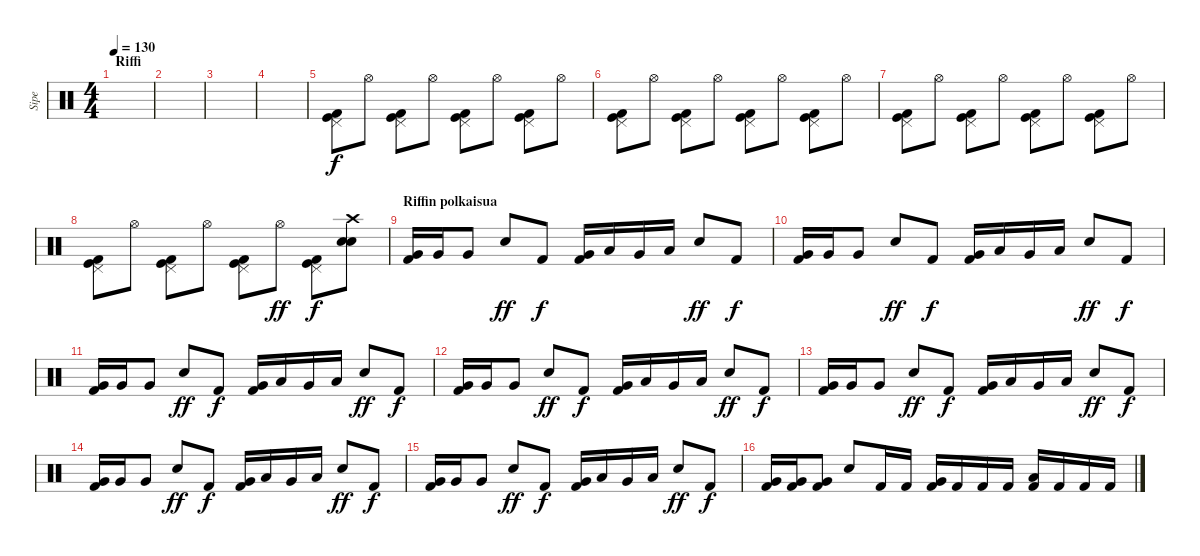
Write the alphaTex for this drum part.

\track ("Sipe" "Sipe") {instrument percussion}
\staff {score}
\articulation defaults
\ts (4 4)
\section ("" "Riffi")
\tempo 130
\clef neutral
\ks c
|
|
|
|
("Pedal Hi-Hat (hit)" "Kick (hit)" "Kick (hit) 2").8 "Hi-Hat (open)".8 ("Pedal Hi-Hat (hit)" "Kick (hit)" "Kick (hit) 2").8 "Hi-Hat (open)".8 ("Pedal Hi-Hat (hit)" "Kick (hit)" "Kick (hit) 2").8 "Hi-Hat (open)".8 ("Pedal Hi-Hat (hit)" "Kick (hit)" "Kick (hit) 2").8 "Hi-Hat (open)".8 |
("Pedal Hi-Hat (hit)" "Kick (hit)" "Kick (hit) 2").8 "Hi-Hat (open)".8 ("Pedal Hi-Hat (hit)" "Kick (hit)" "Kick (hit) 2").8 "Hi-Hat (open)".8 ("Pedal Hi-Hat (hit)" "Kick (hit)" "Kick (hit) 2").8 "Hi-Hat (open)".8 ("Pedal Hi-Hat (hit)" "Kick (hit)" "Kick (hit) 2").8 "Hi-Hat (open)".8 |
("Pedal Hi-Hat (hit)" "Kick (hit)" "Kick (hit) 2").8 "Hi-Hat (open)".8 ("Pedal Hi-Hat (hit)" "Kick (hit)" "Kick (hit) 2").8 "Hi-Hat (open)".8 ("Pedal Hi-Hat (hit)" "Kick (hit)" "Kick (hit) 2").8 "Hi-Hat (open)".8 ("Pedal Hi-Hat (hit)" "Kick (hit)" "Kick (hit) 2").8 "Hi-Hat (open)".8 |
("Pedal Hi-Hat (hit)" "Kick (hit)" "Kick (hit) 2").8 "Hi-Hat (open)".8 ("Pedal Hi-Hat (hit)" "Kick (hit)" "Kick (hit) 2").8 "Hi-Hat (open)".8 ("Pedal Hi-Hat (hit)" "Kick (hit)" "Kick (hit) 2").8 "Hi-Hat (open)".8{dy ff} ("Pedal Hi-Hat (hit)" "Kick (hit)" "Kick (hit) 2").8{dy f} ("Crash high (hit)" "Snare (hit) 2" "Snare (hit) 2").8 |
\section ("" "Riffin polkaisua")
("Very Low Tom (hit)" "Kick (hit) 2").16 "Very Low Tom (hit)".16 "Very Low Tom (hit)".8 "Electric Snare (hit)".8{dy ff} "Kick (hit) 2".8{dy f} ("Very Low Tom (hit)" "Kick (hit) 2").16 "Low Floor Tom (hit)".16 "Very Low Tom (hit)".16 "Low Floor Tom (hit)".16 "Electric Snare (hit)".8{dy ff} "Kick (hit) 2".8{dy f} |
("Very Low Tom (hit)" "Kick (hit) 2").16 "Very Low Tom (hit)".16 "Very Low Tom (hit)".8 "Electric Snare (hit)".8{dy ff} "Kick (hit) 2".8{dy f} ("Very Low Tom (hit)" "Kick (hit) 2").16 "Low Floor Tom (hit)".16 "Very Low Tom (hit)".16 "Low Floor Tom (hit)".16 "Electric Snare (hit)".8{dy ff} "Kick (hit) 2".8{dy f} |
("Very Low Tom (hit)" "Kick (hit) 2").16 "Very Low Tom (hit)".16 "Very Low Tom (hit)".8 "Electric Snare (hit)".8{dy ff} "Kick (hit) 2".8{dy f} ("Very Low Tom (hit)" "Kick (hit) 2").16 "Low Floor Tom (hit)".16 "Very Low Tom (hit)".16 "Low Floor Tom (hit)".16 "Electric Snare (hit)".8{dy ff} "Kick (hit) 2".8{dy f} |
("Very Low Tom (hit)" "Kick (hit) 2").16 "Very Low Tom (hit)".16 "Very Low Tom (hit)".8 "Electric Snare (hit)".8{dy ff} "Kick (hit) 2".8{dy f} ("Very Low Tom (hit)" "Kick (hit) 2").16 "Low Floor Tom (hit)".16 "Very Low Tom (hit)".16 "Low Floor Tom (hit)".16 "Electric Snare (hit)".8{dy ff} "Kick (hit) 2".8{dy f} |
("Very Low Tom (hit)" "Kick (hit) 2").16 "Very Low Tom (hit)".16 "Very Low Tom (hit)".8 "Electric Snare (hit)".8{dy ff} "Kick (hit) 2".8{dy f} ("Very Low Tom (hit)" "Kick (hit) 2").16 "Low Floor Tom (hit)".16 "Very Low Tom (hit)".16 "Low Floor Tom (hit)".16 "Electric Snare (hit)".8{dy ff} "Kick (hit) 2".8{dy f} |
("Very Low Tom (hit)" "Kick (hit) 2").16 "Very Low Tom (hit)".16 "Very Low Tom (hit)".8 "Electric Snare (hit)".8{dy ff} "Kick (hit) 2".8{dy f} ("Very Low Tom (hit)" "Kick (hit) 2").16 "Low Floor Tom (hit)".16 "Very Low Tom (hit)".16 "Low Floor Tom (hit)".16 "Electric Snare (hit)".8{dy ff} "Kick (hit) 2".8{dy f} |
("Very Low Tom (hit)" "Kick (hit) 2").16 "Very Low Tom (hit)".16 "Very Low Tom (hit)".8 "Electric Snare (hit)".8{dy ff} "Kick (hit) 2".8{dy f} ("Very Low Tom (hit)" "Kick (hit) 2").16 "Low Floor Tom (hit)".16 "Very Low Tom (hit)".16 "Low Floor Tom (hit)".16 "Electric Snare (hit)".8{dy ff} "Kick (hit) 2".8{dy f} |
("Very Low Tom (hit)" "Kick (hit) 2").16 ("Very Low Tom (hit)" "Kick (hit) 2").16 ("Very Low Tom (hit)" "Kick (hit) 2").8 "Electric Snare (hit)".8 "Kick (hit) 2".16 "Kick (hit) 2".16 ("Very Low Tom (hit)" "Kick (hit) 2").16 "Kick (hit) 2".16 "Kick (hit) 2".16 "Kick (hit) 2".16 ("Low Floor Tom (hit)" "Kick (hit) 2").16 "Kick (hit) 2".16 "Kick (hit) 2".16 "Kick (hit) 2".16
